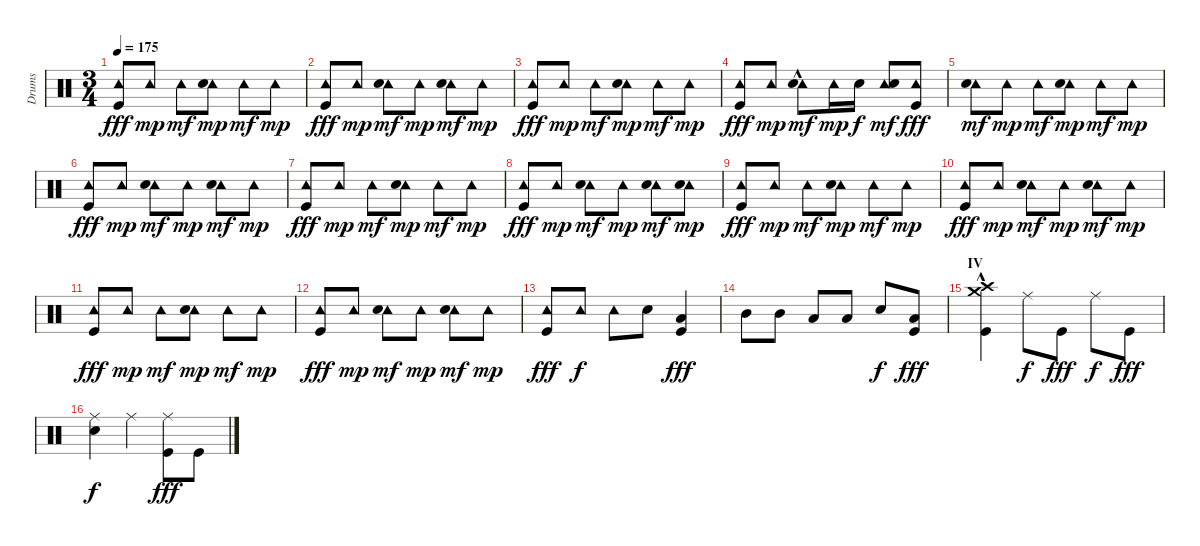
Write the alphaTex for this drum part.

\track ("Drums" "Drums") {instrument percussion}
\staff {score}
\articulation defaults
\ts (3 4)
\tempo 175
\clef neutral
\ks c
("Tambourine (hit)" "Kick (hit)").8{dy fff} "Tambourine (hit)".8{dy mp} "Tambourine (hit)".8{dy mf} ("Tambourine (hit)" "Snare (hit) 2").8{dy mp} "Tambourine (hit)".8{dy mf} "Tambourine (hit)".8{dy mp} |
("Tambourine (hit)" "Kick (hit)").8{dy fff} "Tambourine (hit)".8{dy mp} ("Tambourine (hit)" "Snare (hit) 2").8{dy mf} "Tambourine (hit)".8{dy mp} ("Tambourine (hit)" "Snare (hit) 2").8{dy mf} "Tambourine (hit)".8{dy mp} |
("Tambourine (hit)" "Kick (hit)").8{dy fff} "Tambourine (hit)".8{dy mp} "Tambourine (hit)".8{dy mf} ("Tambourine (hit)" "Snare (hit) 2").8{dy mp} "Tambourine (hit)".8{dy mf} "Tambourine (hit)".8{dy mp} |
("Tambourine (hit)" "Kick (hit)").8{dy fff} "Tambourine (hit)".8{dy mp} ("Tambourine (hit)"{hac} "Snare (hit) 2").8{dy mf} "Tambourine (hit)".16{dy mp} "Snare (hit) 2".16{dy f} ("Tambourine (hit)" "Snare (hit) 2").8{dy mf} ("Tambourine (hit)" "Kick (hit)").8{dy fff} |
("Tambourine (hit)" "Snare (hit) 2").8{dy mf} "Tambourine (hit)".8{dy mp} "Tambourine (hit)".8{dy mf} ("Tambourine (hit)" "Snare (hit) 2").8{dy mp} "Tambourine (hit)".8{dy mf} "Tambourine (hit)".8{dy mp} |
("Tambourine (hit)" "Kick (hit)").8{dy fff} "Tambourine (hit)".8{dy mp} ("Tambourine (hit)" "Snare (hit) 2").8{dy mf} "Tambourine (hit)".8{dy mp} ("Tambourine (hit)" "Snare (hit) 2").8{dy mf} "Tambourine (hit)".8{dy mp} |
("Tambourine (hit)" "Kick (hit)").8{dy fff} "Tambourine (hit)".8{dy mp} "Tambourine (hit)".8{dy mf} ("Tambourine (hit)" "Snare (hit) 2").8{dy mp} "Tambourine (hit)".8{dy mf} "Tambourine (hit)".8{dy mp} |
("Tambourine (hit)" "Kick (hit)").8{dy fff} "Tambourine (hit)".8{dy mp} ("Tambourine (hit)" "Snare (hit) 2").8{dy mf} "Tambourine (hit)".8{dy mp} ("Tambourine (hit)" "Snare (hit) 2").8{dy mf} ("Tambourine (hit)" "Snare (hit) 2").8{dy mp} |
("Tambourine (hit)" "Kick (hit)").8{dy fff} "Tambourine (hit)".8{dy mp} "Tambourine (hit)".8{dy mf} ("Tambourine (hit)" "Snare (hit) 2").8{dy mp} "Tambourine (hit)".8{dy mf} "Tambourine (hit)".8{dy mp} |
("Tambourine (hit)" "Kick (hit)").8{dy fff} "Tambourine (hit)".8{dy mp} ("Tambourine (hit)" "Snare (hit) 2").8{dy mf} "Tambourine (hit)".8{dy mp} ("Tambourine (hit)" "Snare (hit) 2").8{dy mf} "Tambourine (hit)".8{dy mp} |
("Tambourine (hit)" "Kick (hit)").8{dy fff} "Tambourine (hit)".8{dy mp} "Tambourine (hit)".8{dy mf} ("Tambourine (hit)" "Snare (hit) 2").8{dy mp} "Tambourine (hit)".8{dy mf} "Tambourine (hit)".8{dy mp} |
("Tambourine (hit)" "Kick (hit)").8{dy fff} "Tambourine (hit)".8{dy mp} ("Tambourine (hit)" "Snare (hit) 2").8{dy mf} "Tambourine (hit)".8{dy mp} ("Tambourine (hit)" "Snare (hit) 2").8{dy mf} "Tambourine (hit)".8{dy mp} |
("Tambourine (hit)" "Kick (hit)").8{dy fff} "Tambourine (hit)".8{dy f} "Tambourine (hit)".8 "Snare (hit) 2".8 ("Low Tom (hit)" "Kick (hit)").4{dy fff} |
"Mid Tom (hit)".8 "Mid Tom (hit)".8 "Low Tom (hit)".8 "Low Tom (hit)".8 "Snare (hit) 2".8{dy f} ("Low Tom (hit)" "Kick (hit)").8{dy fff} |
\section ("" "IV")
("Crash high (hit)"{hac} "Crash medium (hit)" "Kick (hit)").4 "Ride (middle)".8{dy f} "Kick (hit)".8{dy fff} "Ride (middle)".8{dy f} "Kick (hit)".8{dy fff} |
("Ride (middle)" "Snare (hit) 2").4{dy f} "Ride (middle)".4 ("Ride (middle)" "Kick (hit)").8{dy fff} "Kick (hit)".8
